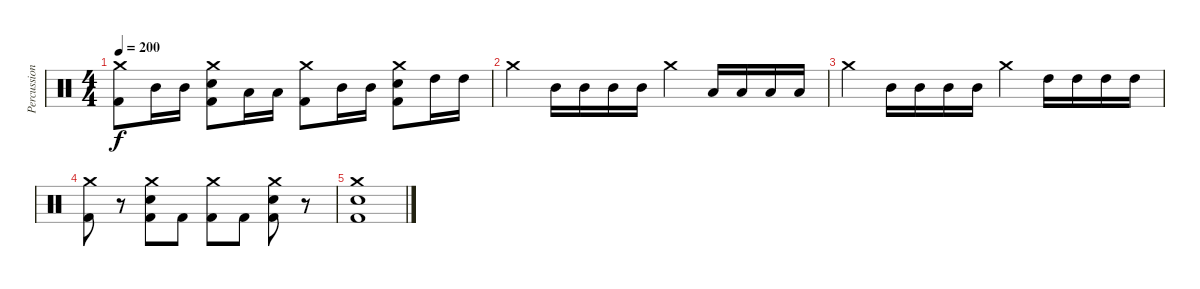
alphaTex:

\track ("Percussion" "Percussion") {instrument percussion}
\staff {score}
\articulation defaults
\ts (4 4)
\tempo 200
\clef neutral
\ks c
("Crash medium (hit)" "Kick (hit) 2").8{dy f} "Mid Tom (hit)".16 "Mid Tom (hit)".16 ("Crash medium (hit)" "Electric Snare (hit)" "Kick (hit) 2").8 "Low Tom (hit)".16 "Low Tom (hit)".16 ("Crash medium (hit)" "Kick (hit) 2").8 "Mid Tom (hit)".16 "Mid Tom (hit)".16 ("Crash medium (hit)" "Electric Snare (hit)" "Kick (hit) 2").8 "High Tom (hit)".16 "High Tom (hit)".16 |
"Crash medium (hit)".4 "Mid Tom (hit)".16 "Mid Tom (hit)".16 "Mid Tom (hit)".16 "Mid Tom (hit)".16 "Crash medium (hit)".4 "Low Tom (hit)".16 "Low Tom (hit)".16 "Low Tom (hit)".16 "Low Tom (hit)".16 |
"Crash medium (hit)".4 "Mid Tom (hit)".16 "Mid Tom (hit)".16 "Mid Tom (hit)".16 "Mid Tom (hit)".16 "Crash medium (hit)".4 "High Tom (hit)".16 "High Tom (hit)".16 "High Tom (hit)".16 "High Tom (hit)".16 |
("Crash medium (hit)" "Kick (hit) 2").8 r.8 ("Crash medium (hit)" "Electric Snare (hit)" "Kick (hit) 2").8 "Kick (hit) 2".8 ("Crash medium (hit)" "Kick (hit) 2").8 "Kick (hit) 2".8 ("Crash medium (hit)" "Electric Snare (hit)" "Kick (hit) 2").8 r.8 |
("Crash medium (hit)" "Electric Snare (hit)" "Kick (hit) 2").1
